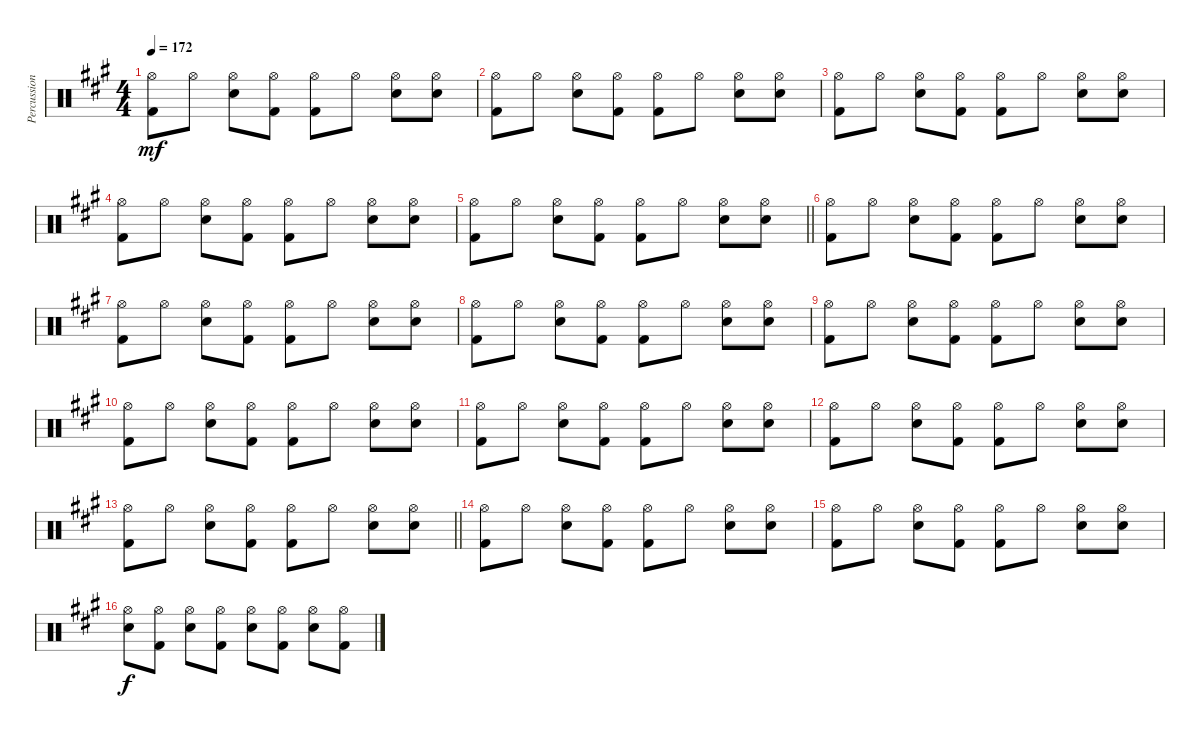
\track ("Percussion" "Percussion") {instrument percussion}
\staff {score}
\articulation defaults
\ts (4 4)
\tempo 172
\clef neutral
\ks a
("Hi-Hat (open)" "Kick (hit) 2").8{dy mf} "Hi-Hat (open)".8 ("Hi-Hat (open)" "Snare (hit) 2").8 ("Hi-Hat (open)" "Kick (hit) 2").8 ("Hi-Hat (open)" "Kick (hit) 2").8 "Hi-Hat (open)".8 ("Hi-Hat (open)" "Snare (hit) 2").8 ("Hi-Hat (open)" "Snare (hit) 2").8 |
("Hi-Hat (open)" "Kick (hit) 2").8 "Hi-Hat (open)".8 ("Hi-Hat (open)" "Snare (hit) 2").8 ("Hi-Hat (open)" "Kick (hit) 2").8 ("Hi-Hat (open)" "Kick (hit) 2").8 "Hi-Hat (open)".8 ("Hi-Hat (open)" "Snare (hit) 2").8 ("Hi-Hat (open)" "Snare (hit) 2").8 |
("Hi-Hat (open)" "Kick (hit) 2").8 "Hi-Hat (open)".8 ("Hi-Hat (open)" "Snare (hit) 2").8 ("Hi-Hat (open)" "Kick (hit) 2").8 ("Hi-Hat (open)" "Kick (hit) 2").8 "Hi-Hat (open)".8 ("Hi-Hat (open)" "Snare (hit) 2").8 ("Hi-Hat (open)" "Snare (hit) 2").8 |
("Hi-Hat (open)" "Kick (hit) 2").8 "Hi-Hat (open)".8 ("Hi-Hat (open)" "Snare (hit) 2").8 ("Hi-Hat (open)" "Kick (hit) 2").8 ("Hi-Hat (open)" "Kick (hit) 2").8 "Hi-Hat (open)".8 ("Hi-Hat (open)" "Snare (hit) 2").8 ("Hi-Hat (open)" "Snare (hit) 2").8 |
\barLineRight lightlight
("Hi-Hat (open)" "Kick (hit) 2").8 "Hi-Hat (open)".8 ("Hi-Hat (open)" "Snare (hit) 2").8 ("Hi-Hat (open)" "Kick (hit) 2").8 ("Hi-Hat (open)" "Kick (hit) 2").8 "Hi-Hat (open)".8 ("Hi-Hat (open)" "Snare (hit) 2").8 ("Hi-Hat (open)" "Snare (hit) 2").8 |
("Hi-Hat (open)" "Kick (hit) 2").8 "Hi-Hat (open)".8 ("Hi-Hat (open)" "Snare (hit) 2").8 ("Hi-Hat (open)" "Kick (hit) 2").8 ("Hi-Hat (open)" "Kick (hit) 2").8 "Hi-Hat (open)".8 ("Hi-Hat (open)" "Snare (hit) 2").8 ("Hi-Hat (open)" "Snare (hit) 2").8 |
("Hi-Hat (open)" "Kick (hit) 2").8 "Hi-Hat (open)".8 ("Hi-Hat (open)" "Snare (hit) 2").8 ("Hi-Hat (open)" "Kick (hit) 2").8 ("Hi-Hat (open)" "Kick (hit) 2").8 "Hi-Hat (open)".8 ("Hi-Hat (open)" "Snare (hit) 2").8 ("Hi-Hat (open)" "Snare (hit) 2").8 |
("Hi-Hat (open)" "Kick (hit) 2").8 "Hi-Hat (open)".8 ("Hi-Hat (open)" "Snare (hit) 2").8 ("Hi-Hat (open)" "Kick (hit) 2").8 ("Hi-Hat (open)" "Kick (hit) 2").8 "Hi-Hat (open)".8 ("Hi-Hat (open)" "Snare (hit) 2").8 ("Hi-Hat (open)" "Snare (hit) 2").8 |
("Hi-Hat (open)" "Kick (hit) 2").8 "Hi-Hat (open)".8 ("Hi-Hat (open)" "Snare (hit) 2").8 ("Hi-Hat (open)" "Kick (hit) 2").8 ("Hi-Hat (open)" "Kick (hit) 2").8 "Hi-Hat (open)".8 ("Hi-Hat (open)" "Snare (hit) 2").8 ("Hi-Hat (open)" "Snare (hit) 2").8 |
("Hi-Hat (open)" "Kick (hit) 2").8 "Hi-Hat (open)".8 ("Hi-Hat (open)" "Snare (hit) 2").8 ("Hi-Hat (open)" "Kick (hit) 2").8 ("Hi-Hat (open)" "Kick (hit) 2").8 "Hi-Hat (open)".8 ("Hi-Hat (open)" "Snare (hit) 2").8 ("Hi-Hat (open)" "Snare (hit) 2").8 |
("Hi-Hat (open)" "Kick (hit) 2").8 "Hi-Hat (open)".8 ("Hi-Hat (open)" "Snare (hit) 2").8 ("Hi-Hat (open)" "Kick (hit) 2").8 ("Hi-Hat (open)" "Kick (hit) 2").8 "Hi-Hat (open)".8 ("Hi-Hat (open)" "Snare (hit) 2").8 ("Hi-Hat (open)" "Snare (hit) 2").8 |
("Hi-Hat (open)" "Kick (hit) 2").8 "Hi-Hat (open)".8 ("Hi-Hat (open)" "Snare (hit) 2").8 ("Hi-Hat (open)" "Kick (hit) 2").8 ("Hi-Hat (open)" "Kick (hit) 2").8 "Hi-Hat (open)".8 ("Hi-Hat (open)" "Snare (hit) 2").8 ("Hi-Hat (open)" "Snare (hit) 2").8 |
\barLineRight lightlight
("Hi-Hat (open)" "Kick (hit) 2").8 "Hi-Hat (open)".8 ("Hi-Hat (open)" "Snare (hit) 2").8 ("Hi-Hat (open)" "Kick (hit) 2").8 ("Hi-Hat (open)" "Kick (hit) 2").8 "Hi-Hat (open)".8 ("Hi-Hat (open)" "Snare (hit) 2").8 ("Hi-Hat (open)" "Snare (hit) 2").8 |
("Hi-Hat (open)" "Kick (hit) 2").8 "Hi-Hat (open)".8 ("Hi-Hat (open)" "Snare (hit) 2").8 ("Hi-Hat (open)" "Kick (hit) 2").8 ("Hi-Hat (open)" "Kick (hit) 2").8 "Hi-Hat (open)".8 ("Hi-Hat (open)" "Snare (hit) 2").8 ("Hi-Hat (open)" "Snare (hit) 2").8 |
("Hi-Hat (open)" "Kick (hit) 2").8 "Hi-Hat (open)".8 ("Hi-Hat (open)" "Snare (hit) 2").8 ("Hi-Hat (open)" "Kick (hit) 2").8 ("Hi-Hat (open)" "Kick (hit) 2").8 "Hi-Hat (open)".8 ("Hi-Hat (open)" "Snare (hit) 2").8 ("Hi-Hat (open)" "Snare (hit) 2").8 |
("Hi-Hat (open)" "Snare (hit) 2").8{dy f} ("Hi-Hat (open)" "Kick (hit) 2").8 ("Hi-Hat (open)" "Snare (hit) 2").8 ("Hi-Hat (open)" "Kick (hit) 2").8 ("Hi-Hat (open)" "Snare (hit) 2").8 ("Hi-Hat (open)" "Kick (hit) 2").8 ("Hi-Hat (open)" "Snare (hit) 2").8 ("Hi-Hat (open)" "Kick (hit) 2").8
